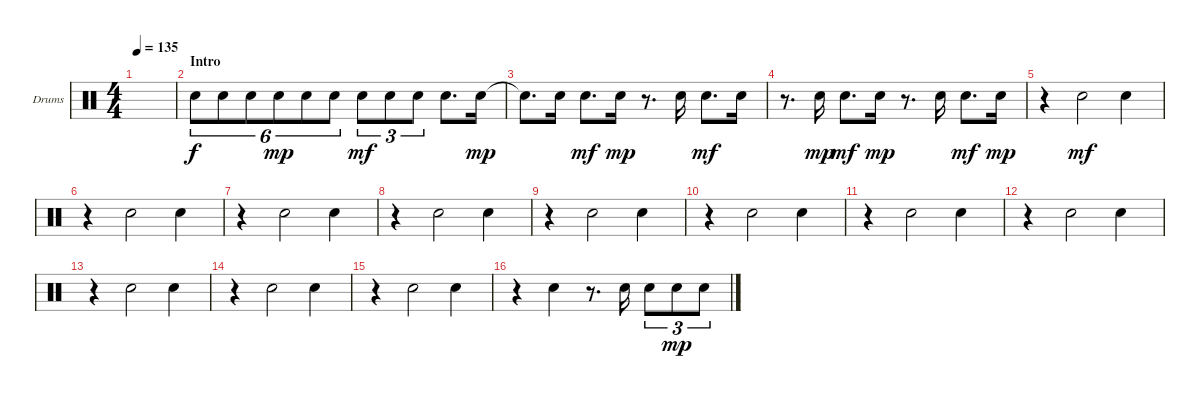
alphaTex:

\bracketExtendMode groupsimilarinstruments
\firstSystemTrackNameOrientation horizontal
\otherSystemsTrackNameOrientation horizontal
\track ("Snare" "Drums") {instrument percussion}
\staff {score}
\articulation defaults
\ts (4 4)
\tempo 135
\clef neutral
\ks c
|
\section ("" "Intro")
"Snare (hit) 2".8{tu (6 4)} "Snare (hit) 2".8{tu (6 4)} "Snare (hit) 2".8{tu (6 4)} "Snare (hit) 2".8{tu (6 4) dy mp} "Snare (hit) 2".8{tu (6 4)} "Snare (hit) 2".8{tu (6 4)} "Snare (hit) 2".8{tu (3 2) dy mf} "Snare (hit) 2".8{tu (3 2)} "Snare (hit) 2".8{tu (3 2)} "Snare (hit) 2".8{d} "Snare (hit) 2".16{dy mp} |
"Snare (hit) 2"{t}.8{d} "Snare (hit) 2".16 "Snare (hit) 2".8{d dy mf} "Snare (hit) 2".16{dy mp} r.8{d} "Snare (hit) 2".16 "Snare (hit) 2".8{d dy mf} "Snare (hit) 2".16 |
r.8{d} "Snare (hit) 2".16{dy mp} "Snare (hit) 2".8{d dy mf} "Snare (hit) 2".16{dy mp} r.8{d} "Snare (hit) 2".16 "Snare (hit) 2".8{d dy mf} "Snare (hit) 2".16{dy mp} |
r.4 "Snare (hit) 2".2{dy mf} "Snare (hit) 2".4 |
r.4 "Snare (hit) 2".2 "Snare (hit) 2".4 |
r.4 "Snare (hit) 2".2 "Snare (hit) 2".4 |
r.4 "Snare (hit) 2".2 "Snare (hit) 2".4 |
r.4 "Snare (hit) 2".2 "Snare (hit) 2".4 |
r.4 "Snare (hit) 2".2 "Snare (hit) 2".4 |
r.4 "Snare (hit) 2".2 "Snare (hit) 2".4 |
r.4 "Snare (hit) 2".2 "Snare (hit) 2".4 |
r.4 "Snare (hit) 2".2 "Snare (hit) 2".4 |
r.4 "Snare (hit) 2".2 "Snare (hit) 2".4 |
r.4 "Snare (hit) 2".2 "Snare (hit) 2".4 |
r.4 "Snare (hit) 2".4 r.8{d} "Snare (hit) 2".16 "Snare (hit) 2".8{tu (3 2)} "Snare (hit) 2".8{tu (3 2) dy mp} "Snare (hit) 2".8{tu (3 2)}
